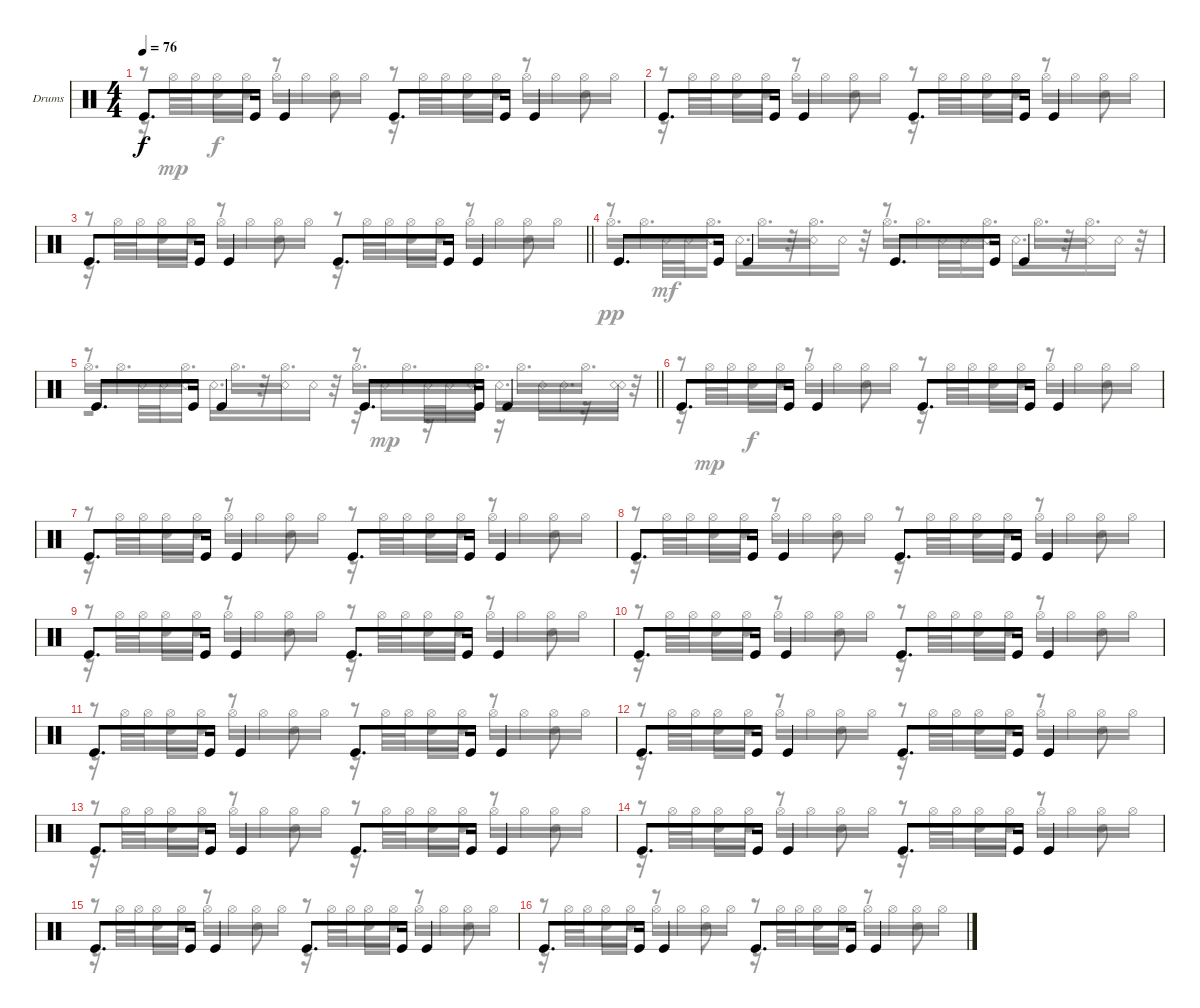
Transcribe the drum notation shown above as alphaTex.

\bracketExtendMode groupsimilarinstruments
\firstSystemTrackNameOrientation horizontal
\otherSystemsTrackNameOrientation horizontal
\track ("Drumkit" "Drums") {instrument percussion}
\staff {score}
\articulation defaults
\voice
\ts (4 4)
\tempo 76
\clef neutral
\ks c "Kick (hit)".8{d dy f} "Kick (hit)".16 "Kick (hit)".4 "Kick (hit)".8{d} "Kick (hit)".16 "Kick (hit)".4
|
"Kick (hit)".8{d} "Kick (hit)".16 "Kick (hit)".4 "Kick (hit)".8{d} "Kick (hit)".16 "Kick (hit)".4 |
\barLineRight lightlight "Kick (hit)".8{d} "Kick (hit)".16 "Kick (hit)".4 "Kick (hit)".8{d} "Kick (hit)".16 "Kick (hit)".4
|
"Kick (hit)".8{d} "Kick (hit)".16 "Kick (hit)".4 "Kick (hit)".8{d} "Kick (hit)".16 "Kick (hit)".4 |
\barLineRight lightlight "Kick (hit)".8{d} "Kick (hit)".16 "Kick (hit)".4 "Kick (hit)".8{d} "Kick (hit)".16 "Kick (hit)".4
|
"Kick (hit)".8{d} "Kick (hit)".16 "Kick (hit)".4 "Kick (hit)".8{d} "Kick (hit)".16 "Kick (hit)".4 |
"Kick (hit)".8{d} "Kick (hit)".16 "Kick (hit)".4 "Kick (hit)".8{d} "Kick (hit)".16 "Kick (hit)".4 |
"Kick (hit)".8{d} "Kick (hit)".16 "Kick (hit)".4 "Kick (hit)".8{d} "Kick (hit)".16 "Kick (hit)".4 |
"Kick (hit)".8{d} "Kick (hit)".16 "Kick (hit)".4 "Kick (hit)".8{d} "Kick (hit)".16 "Kick (hit)".4 |
"Kick (hit)".8{d} "Kick (hit)".16 "Kick (hit)".4 "Kick (hit)".8{d} "Kick (hit)".16 "Kick (hit)".4 |
"Kick (hit)".8{d} "Kick (hit)".16 "Kick (hit)".4 "Kick (hit)".8{d} "Kick (hit)".16 "Kick (hit)".4 |
"Kick (hit)".8{d} "Kick (hit)".16 "Kick (hit)".4 "Kick (hit)".8{d} "Kick (hit)".16 "Kick (hit)".4 |
"Kick (hit)".8{d} "Kick (hit)".16 "Kick (hit)".4 "Kick (hit)".8{d} "Kick (hit)".16 "Kick (hit)".4 |
"Kick (hit)".8{d} "Kick (hit)".16 "Kick (hit)".4 "Kick (hit)".8{d} "Kick (hit)".16 "Kick (hit)".4 |
"Kick (hit)".8{d} "Kick (hit)".16 "Kick (hit)".4 "Kick (hit)".8{d} "Kick (hit)".16 "Kick (hit)".4 |
"Kick (hit)".8{d} "Kick (hit)".16 "Kick (hit)".4 "Kick (hit)".8{d} "Kick (hit)".16 "Kick (hit)".4
\voice
\clef neutral
\ottava regular
\simile none
\ks c
r.8{dy f} "Snare (hit) 2".16 "Snare (hit) 2".16 r.8 "Snare (hit) 2".8 r.8 "Snare (hit) 2".16 "Snare (hit) 2".16 r.8 "Snare (hit) 2".8 |
r.8 "Snare (hit) 2".16 "Snare (hit) 2".16 r.8 "Snare (hit) 2".8 r.8 "Snare (hit) 2".16 "Snare (hit) 2".16 r.8 "Snare (hit) 2".8 |
\barLineRight lightlight
r.8 "Snare (hit) 2".16 "Snare (hit) 2".16 r.8 "Snare (hit) 2".8 r.8 "Snare (hit) 2".16 "Snare (hit) 2".16 r.8 "Snare (hit) 2".8 |
r.8 "Snare (rim shot)".32{dy mf} "Snare (rim shot)".32 "Snare (rim shot)".16 "Snare (rim shot)".16{d} r.32 "Snare (rim shot)".16 "Snare (rim shot)".16 r.8 "Snare (rim shot)".32 "Snare (rim shot)".32 "Snare (rim shot)".16 "Snare (rim shot)".16{d} r.32 "Snare (rim shot)".16 "Snare (rim shot)".16 |
\barLineRight lightlight
r.8 "Snare (rim shot)".32 "Snare (rim shot)".32 "Snare (rim shot)".16 "Snare (rim shot)".16{d} r.32 "Snare (rim shot)".16 "Snare (rim shot)".16 r.8 "Snare (rim shot)".32 "Snare (rim shot)".32 "Snare (rim shot)".16 "Snare (rim shot)".16{d} "Snare (rim shot)".16{d} "Snare (rim shot)".16 |
r.8 "Snare (hit) 2".16{dy f} "Snare (hit) 2".16 r.8 "Snare (hit) 2".8 r.8 "Snare (hit) 2".16 "Snare (hit) 2".16 r.8 "Snare (hit) 2".8 |
r.8 "Snare (hit) 2".16 "Snare (hit) 2".16 r.8 "Snare (hit) 2".8 r.8 "Snare (hit) 2".16 "Snare (hit) 2".16 r.8 "Snare (hit) 2".8 |
r.8 "Snare (hit) 2".16 "Snare (hit) 2".16 r.8 "Snare (hit) 2".8 r.8 "Snare (hit) 2".16 "Snare (hit) 2".16 r.8 "Snare (hit) 2".8 |
r.8 "Snare (hit) 2".16 "Snare (hit) 2".16 r.8 "Snare (hit) 2".8 r.8 "Snare (hit) 2".16 "Snare (hit) 2".16 r.8 "Snare (hit) 2".8 |
r.8 "Snare (hit) 2".16 "Snare (hit) 2".16 r.8 "Snare (hit) 2".8 r.8 "Snare (hit) 2".16 "Snare (hit) 2".16 r.8 "Snare (hit) 2".8 |
r.8 "Snare (hit) 2".16 "Snare (hit) 2".16 r.8 "Snare (hit) 2".8 r.8 "Snare (hit) 2".16 "Snare (hit) 2".16 r.8 "Snare (hit) 2".8 |
r.8 "Snare (hit) 2".16 "Snare (hit) 2".16 r.8 "Snare (hit) 2".8 r.8 "Snare (hit) 2".16 "Snare (hit) 2".16 r.8 "Snare (hit) 2".8 |
r.8 "Snare (hit) 2".16 "Snare (hit) 2".16 r.8 "Snare (hit) 2".8 r.8 "Snare (hit) 2".16 "Snare (hit) 2".16 r.8 "Snare (hit) 2".8 |
r.8 "Snare (hit) 2".16 "Snare (hit) 2".16 r.8 "Snare (hit) 2".8 r.8 "Snare (hit) 2".16 "Snare (hit) 2".16 r.8 "Snare (hit) 2".8 |
r.8 "Snare (hit) 2".16 "Snare (hit) 2".16 r.8 "Snare (hit) 2".8 r.8 "Snare (hit) 2".16 "Snare (hit) 2".16 r.8 "Snare (hit) 2".8 |
r.8 "Snare (hit) 2".16 "Snare (hit) 2".16 r.8 "Snare (hit) 2".8 r.8 "Snare (hit) 2".16 "Snare (hit) 2".16 r.8 "Snare (hit) 2".8
\voice
\clef neutral
\ottava regular
\simile none
\ks c
r.16{dy mp} "Hi-Hat (open)".32 "Hi-Hat (open)".32 "Hi-Hat (open)".16 "Hi-Hat (open)".16 "Hi-Hat (open)".16 "Hi-Hat (open)".16 "Hi-Hat (open)".16 "Hi-Hat (open)".16 r.16 "Hi-Hat (open)".32 "Hi-Hat (open)".32 "Hi-Hat (open)".16 "Hi-Hat (open)".16 "Hi-Hat (open)".16 "Hi-Hat (open)".16 "Hi-Hat (open)".16 "Hi-Hat (open)".16 |
r.16 "Hi-Hat (open)".32 "Hi-Hat (open)".32 "Hi-Hat (open)".16 "Hi-Hat (open)".16 "Hi-Hat (open)".16 "Hi-Hat (open)".16 "Hi-Hat (open)".16 "Hi-Hat (open)".16 r.16 "Hi-Hat (open)".32 "Hi-Hat (open)".32 "Hi-Hat (open)".16 "Hi-Hat (open)".16 "Hi-Hat (open)".16 "Hi-Hat (open)".16 "Hi-Hat (open)".16 "Hi-Hat (open)".16 |
\barLineRight lightlight
r.16 "Hi-Hat (open)".32 "Hi-Hat (open)".32 "Hi-Hat (open)".16 "Hi-Hat (open)".16 "Hi-Hat (open)".16 "Hi-Hat (open)".16 "Hi-Hat (open)".16 "Hi-Hat (open)".16 r.16 "Hi-Hat (open)".32 "Hi-Hat (open)".32 "Hi-Hat (open)".16 "Hi-Hat (open)".16 "Hi-Hat (open)".16 "Hi-Hat (open)".16 "Hi-Hat (open)".16 "Hi-Hat (open)".16 |
"Hi-Hat (open)".16{d dy pp} "Hi-Hat (open)".16{d} "Hi-Hat (open)".16{d} "Hi-Hat (open)".16{d} "Hi-Hat (open)".16{d} r.32 "Hi-Hat (open)".16{d} "Hi-Hat (open)".16{d} "Hi-Hat (open)".16{d} "Hi-Hat (open)".16{d} "Hi-Hat (open)".16{d} r.32 |
\barLineRight lightlight "Hi-Hat (open)".16{d} "Hi-Hat (open)".16{d} "Hi-Hat (open)".16{d} "Hi-Hat (open)".16{d} "Hi-Hat (open)".16{d}
r.32 "Hi-Hat (open)".16{d} "Hi-Hat (open)".16{d} "Hi-Hat (open)".16{d} "Hi-Hat (open)".16{d} "Hi-Hat (open)".16{d} r.32 |
r.16 "Hi-Hat (open)".32{dy mp} "Hi-Hat (open)".32 "Hi-Hat (open)".16 "Hi-Hat (open)".16 "Hi-Hat (open)".16 "Hi-Hat (open)".16 "Hi-Hat (open)".16 "Hi-Hat (open)".16 r.16 "Hi-Hat (open)".32 "Hi-Hat (open)".32 "Hi-Hat (open)".16 "Hi-Hat (open)".16 "Hi-Hat (open)".16 "Hi-Hat (open)".16 "Hi-Hat (open)".16 "Hi-Hat (open)".16 |
r.16 "Hi-Hat (open)".32 "Hi-Hat (open)".32 "Hi-Hat (open)".16 "Hi-Hat (open)".16 "Hi-Hat (open)".16 "Hi-Hat (open)".16 "Hi-Hat (open)".16 "Hi-Hat (open)".16 r.16 "Hi-Hat (open)".32 "Hi-Hat (open)".32 "Hi-Hat (open)".16 "Hi-Hat (open)".16 "Hi-Hat (open)".16 "Hi-Hat (open)".16 "Hi-Hat (open)".16 "Hi-Hat (open)".16 |
r.16 "Hi-Hat (open)".32 "Hi-Hat (open)".32 "Hi-Hat (open)".16 "Hi-Hat (open)".16 "Hi-Hat (open)".16 "Hi-Hat (open)".16 "Hi-Hat (open)".16 "Hi-Hat (open)".16 r.16 "Hi-Hat (open)".32 "Hi-Hat (open)".32 "Hi-Hat (open)".16 "Hi-Hat (open)".16 "Hi-Hat (open)".16 "Hi-Hat (open)".16 "Hi-Hat (open)".16 "Hi-Hat (open)".16 |
r.16 "Hi-Hat (open)".32 "Hi-Hat (open)".32 "Hi-Hat (open)".16 "Hi-Hat (open)".16 "Hi-Hat (open)".16 "Hi-Hat (open)".16 "Hi-Hat (open)".16 "Hi-Hat (open)".16 r.16 "Hi-Hat (open)".32 "Hi-Hat (open)".32 "Hi-Hat (open)".16 "Hi-Hat (open)".16 "Hi-Hat (open)".16 "Hi-Hat (open)".16 "Hi-Hat (open)".16 "Hi-Hat (open)".16 |
r.16 "Hi-Hat (open)".32 "Hi-Hat (open)".32 "Hi-Hat (open)".16 "Hi-Hat (open)".16 "Hi-Hat (open)".16 "Hi-Hat (open)".16 "Hi-Hat (open)".16 "Hi-Hat (open)".16 r.16 "Hi-Hat (open)".32 "Hi-Hat (open)".32 "Hi-Hat (open)".16 "Hi-Hat (open)".16 "Hi-Hat (open)".16 "Hi-Hat (open)".16 "Hi-Hat (open)".16 "Hi-Hat (open)".16 |
r.16 "Hi-Hat (open)".32 "Hi-Hat (open)".32 "Hi-Hat (open)".16 "Hi-Hat (open)".16 "Hi-Hat (open)".16 "Hi-Hat (open)".16 "Hi-Hat (open)".16 "Hi-Hat (open)".16 r.16 "Hi-Hat (open)".32 "Hi-Hat (open)".32 "Hi-Hat (open)".16 "Hi-Hat (open)".16 "Hi-Hat (open)".16 "Hi-Hat (open)".16 "Hi-Hat (open)".16 "Hi-Hat (open)".16 |
r.16 "Hi-Hat (open)".32 "Hi-Hat (open)".32 "Hi-Hat (open)".16 "Hi-Hat (open)".16 "Hi-Hat (open)".16 "Hi-Hat (open)".16 "Hi-Hat (open)".16 "Hi-Hat (open)".16 r.16 "Hi-Hat (open)".32 "Hi-Hat (open)".32 "Hi-Hat (open)".16 "Hi-Hat (open)".16 "Hi-Hat (open)".16 "Hi-Hat (open)".16 "Hi-Hat (open)".16 "Hi-Hat (open)".16 |
r.16 "Hi-Hat (open)".32 "Hi-Hat (open)".32 "Hi-Hat (open)".16 "Hi-Hat (open)".16 "Hi-Hat (open)".16 "Hi-Hat (open)".16 "Hi-Hat (open)".16 "Hi-Hat (open)".16 r.16 "Hi-Hat (open)".32 "Hi-Hat (open)".32 "Hi-Hat (open)".16 "Hi-Hat (open)".16 "Hi-Hat (open)".16 "Hi-Hat (open)".16 "Hi-Hat (open)".16 "Hi-Hat (open)".16 |
r.16 "Hi-Hat (open)".32 "Hi-Hat (open)".32 "Hi-Hat (open)".16 "Hi-Hat (open)".16 "Hi-Hat (open)".16 "Hi-Hat (open)".16 "Hi-Hat (open)".16 "Hi-Hat (open)".16 r.16 "Hi-Hat (open)".32 "Hi-Hat (open)".32 "Hi-Hat (open)".16 "Hi-Hat (open)".16 "Hi-Hat (open)".16 "Hi-Hat (open)".16 "Hi-Hat (open)".16 "Hi-Hat (open)".16 |
r.16 "Hi-Hat (open)".32 "Hi-Hat (open)".32 "Hi-Hat (open)".16 "Hi-Hat (open)".16 "Hi-Hat (open)".16 "Hi-Hat (open)".16 "Hi-Hat (open)".16 "Hi-Hat (open)".16 r.16 "Hi-Hat (open)".32 "Hi-Hat (open)".32 "Hi-Hat (open)".16 "Hi-Hat (open)".16 "Hi-Hat (open)".16 "Hi-Hat (open)".16 "Hi-Hat (open)".16 "Hi-Hat (open)".16 |
r.16 "Hi-Hat (open)".32 "Hi-Hat (open)".32 "Hi-Hat (open)".16 "Hi-Hat (open)".16 "Hi-Hat (open)".16 "Hi-Hat (open)".16 "Hi-Hat (open)".16 "Hi-Hat (open)".16 r.16 "Hi-Hat (open)".32 "Hi-Hat (open)".32 "Hi-Hat (open)".16 "Hi-Hat (open)".16 "Hi-Hat (open)".16 "Hi-Hat (open)".16 "Hi-Hat (open)".16 "Hi-Hat (open)".16
\voice
\clef neutral
\ottava regular
\simile none
\ks c
|
|
\barLineRight lightlight
|
|
\barLineRight lightlight
r.2 r.16 "Snare (rim shot)".16 r.16 "Snare (rim shot)".16 r.16 "Snare (rim shot)".16 r.16 "Snare (rim shot)".16 |
|
|
|
|
|
|
|
|
|
|
